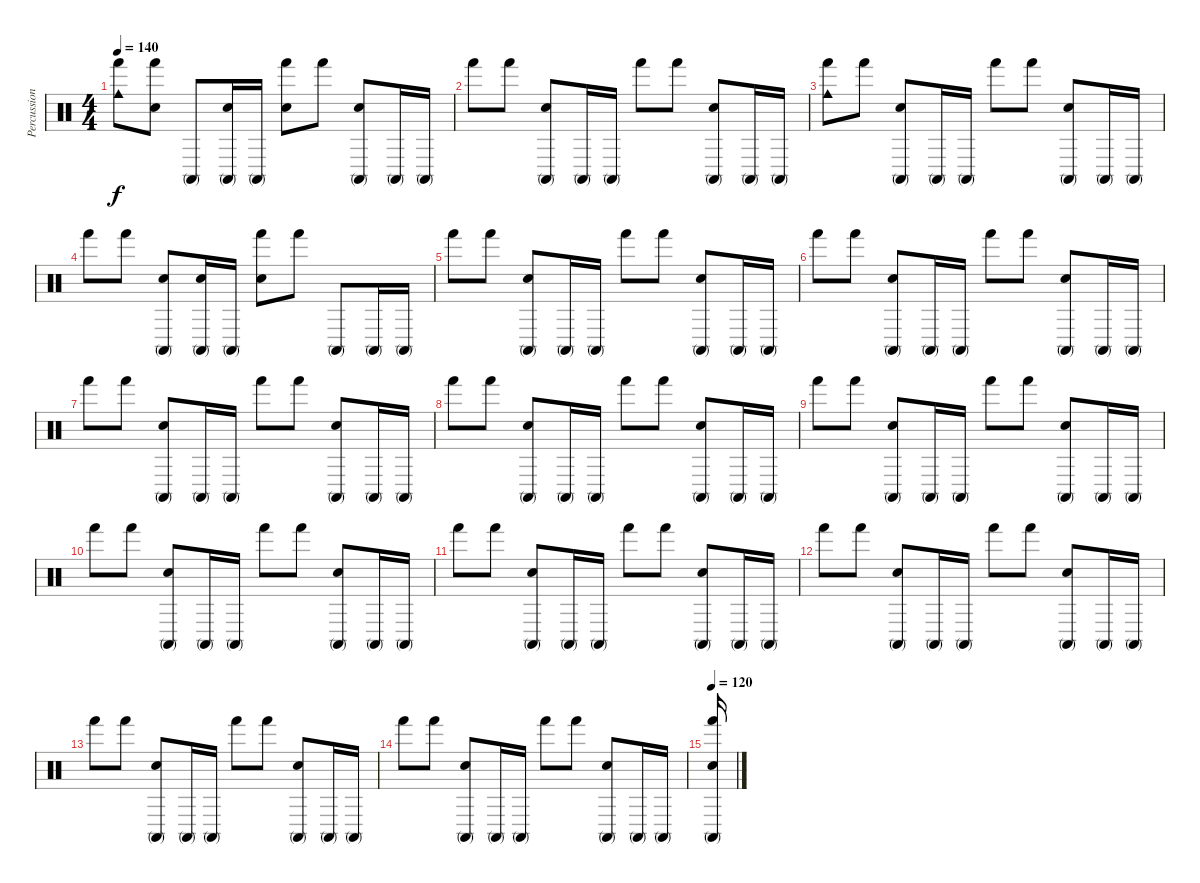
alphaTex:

\track ("Percussion" "Percussion") {instrument percussion}
\staff {score}
\articulation defaults
\ts (4 4)
\tempo 140
\clef neutral
\ks c
("Cowbell medium (hit)" "Hand (hit)").8{dy f} ("Hand Clap (hit)" "Hand (hit)").8 "Conga high (mute)".8 ("Hand Clap (hit)" "Conga high (mute)").16 "Conga high (mute)".16 ("Hand Clap (hit)" "Hand (hit)").8 "Hand (hit)".8 ("Hand Clap (hit)" "Conga high (mute)").8 "Conga high (mute)".16 "Conga high (mute)".16 |
"Hand (hit)".8 "Hand (hit)".8 ("Hand Clap (hit)" "Conga high (mute)").8 "Conga high (mute)".16 "Conga high (mute)".16 "Hand (hit)".8 "Hand (hit)".8 ("Hand Clap (hit)" "Conga high (mute)").8 "Conga high (mute)".16 "Conga high (mute)".16 |
("Cowbell medium (hit)" "Hand (hit)").8 "Hand (hit)".8 ("Hand Clap (hit)" "Conga high (mute)").8 "Conga high (mute)".16 "Conga high (mute)".16 "Hand (hit)".8 "Hand (hit)".8 ("Hand Clap (hit)" "Conga high (mute)").8 "Conga high (mute)".16 "Conga high (mute)".16 |
"Hand (hit)".8 "Hand (hit)".8 ("Hand Clap (hit)" "Conga high (mute)").8 ("Hand Clap (hit)" "Conga high (mute)").16 "Conga high (mute)".16 ("Hand Clap (hit)" "Hand (hit)").8 "Hand (hit)".8 "Conga high (mute)".8 "Conga high (mute)".16 "Conga high (mute)".16 |
"Hand (hit)".8 "Hand (hit)".8 ("Hand Clap (hit)" "Conga high (mute)").8 "Conga high (mute)".16 "Conga high (mute)".16 "Hand (hit)".8 "Hand (hit)".8 ("Hand Clap (hit)" "Conga high (mute)").8 "Conga high (mute)".16 "Conga high (mute)".16 |
"Hand (hit)".8 "Hand (hit)".8 ("Hand Clap (hit)" "Conga high (mute)").8 "Conga high (mute)".16 "Conga high (mute)".16 "Hand (hit)".8 "Hand (hit)".8 ("Hand Clap (hit)" "Conga high (mute)").8 "Conga high (mute)".16 "Conga high (mute)".16 |
"Hand (hit)".8 "Hand (hit)".8 ("Hand Clap (hit)" "Conga high (mute)").8 "Conga high (mute)".16 "Conga high (mute)".16 "Hand (hit)".8 "Hand (hit)".8 ("Hand Clap (hit)" "Conga high (mute)").8 "Conga high (mute)".16 "Conga high (mute)".16 |
"Hand (hit)".8 "Hand (hit)".8 ("Hand Clap (hit)" "Conga high (mute)").8 "Conga high (mute)".16 "Conga high (mute)".16 "Hand (hit)".8 "Hand (hit)".8 ("Hand Clap (hit)" "Conga high (mute)").8 "Conga high (mute)".16 "Conga high (mute)".16 |
"Hand (hit)".8 "Hand (hit)".8 ("Hand Clap (hit)" "Conga high (mute)").8 "Conga high (mute)".16 "Conga high (mute)".16 "Hand (hit)".8 "Hand (hit)".8 ("Hand Clap (hit)" "Conga high (mute)").8 "Conga high (mute)".16 "Conga high (mute)".16 |
"Hand (hit)".8 "Hand (hit)".8 ("Hand Clap (hit)" "Conga high (mute)").8 "Conga high (mute)".16 "Conga high (mute)".16 "Hand (hit)".8 "Hand (hit)".8 ("Hand Clap (hit)" "Conga high (mute)").8 "Conga high (mute)".16 "Conga high (mute)".16 |
"Hand (hit)".8 "Hand (hit)".8 ("Hand Clap (hit)" "Conga high (mute)").8 "Conga high (mute)".16 "Conga high (mute)".16 "Hand (hit)".8 "Hand (hit)".8 ("Hand Clap (hit)" "Conga high (mute)").8 "Conga high (mute)".16 "Conga high (mute)".16 |
"Hand (hit)".8 "Hand (hit)".8 ("Hand Clap (hit)" "Conga high (mute)").8 "Conga high (mute)".16 "Conga high (mute)".16 "Hand (hit)".8 "Hand (hit)".8 ("Hand Clap (hit)" "Conga high (mute)").8 "Conga high (mute)".16 "Conga high (mute)".16 |
"Hand (hit)".8 "Hand (hit)".8 ("Hand Clap (hit)" "Conga high (mute)").8 "Conga high (mute)".16 "Conga high (mute)".16 "Hand (hit)".8 "Hand (hit)".8 ("Hand Clap (hit)" "Conga high (mute)").8 "Conga high (mute)".16 "Conga high (mute)".16 |
"Hand (hit)".8 "Hand (hit)".8 ("Hand Clap (hit)" "Conga high (mute)").8 "Conga high (mute)".16 "Conga high (mute)".16 "Hand (hit)".8 "Hand (hit)".8 ("Hand Clap (hit)" "Conga high (mute)").8 "Conga high (mute)".16 "Conga high (mute)".16 |
\tempo 120
("Hand Clap (hit)" "Conga high (mute)" "Hand (hit)").16
